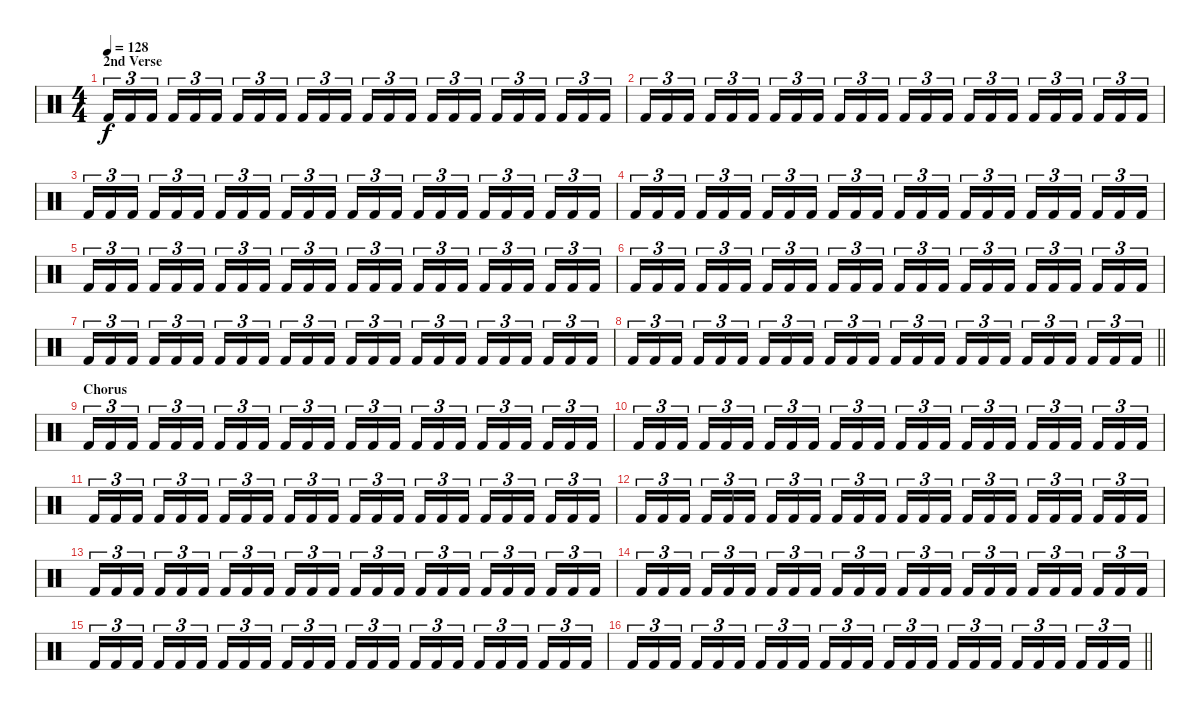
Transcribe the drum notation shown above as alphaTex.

\track "" {instrument percussion}
\staff {score}
\articulation defaults
\ts (4 4)
\section ("" "2nd Verse")
\tempo 128
\clef neutral
\ks c "Kick (hit) 2".16{tu (3 2) dy f} "Kick (hit) 2".16{tu (3 2)} "Kick (hit) 2".16{tu (3 2) beam splitsecondary} "Kick (hit) 2".16{tu (3 2)} "Kick (hit) 2".16{tu (3 2)} "Kick (hit) 2".16{tu (3 2)} "Kick (hit) 2".16{tu (3 2)} "Kick (hit) 2".16{tu (3 2)} "Kick (hit) 2".16{tu (3 2) beam splitsecondary} "Kick (hit) 2".16{tu (3 2)} "Kick (hit) 2".16{tu (3 2)} "Kick (hit) 2".16{tu (3 2)} "Kick (hit) 2".16{tu (3 2)} "Kick (hit) 2".16{tu (3 2)} "Kick (hit) 2".16{tu (3 2) beam splitsecondary} "Kick (hit) 2".16{tu (3 2)} "Kick (hit) 2".16{tu (3 2)} "Kick (hit) 2".16{tu (3 2)} "Kick (hit) 2".16{tu (3 2)} "Kick (hit) 2".16{tu (3 2)} "Kick (hit) 2".16{tu (3 2) beam splitsecondary} "Kick (hit) 2".16{tu (3 2)} "Kick (hit) 2".16{tu (3 2)} "Kick (hit) 2".16{tu (3 2)}
|
"Kick (hit) 2".16{tu (3 2)} "Kick (hit) 2".16{tu (3 2)} "Kick (hit) 2".16{tu (3 2) beam splitsecondary} "Kick (hit) 2".16{tu (3 2)} "Kick (hit) 2".16{tu (3 2)} "Kick (hit) 2".16{tu (3 2)} "Kick (hit) 2".16{tu (3 2)} "Kick (hit) 2".16{tu (3 2)} "Kick (hit) 2".16{tu (3 2) beam splitsecondary} "Kick (hit) 2".16{tu (3 2)} "Kick (hit) 2".16{tu (3 2)} "Kick (hit) 2".16{tu (3 2)} "Kick (hit) 2".16{tu (3 2)} "Kick (hit) 2".16{tu (3 2)} "Kick (hit) 2".16{tu (3 2) beam splitsecondary} "Kick (hit) 2".16{tu (3 2)} "Kick (hit) 2".16{tu (3 2)} "Kick (hit) 2".16{tu (3 2)} "Kick (hit) 2".16{tu (3 2)} "Kick (hit) 2".16{tu (3 2)} "Kick (hit) 2".16{tu (3 2) beam splitsecondary} "Kick (hit) 2".16{tu (3 2)} "Kick (hit) 2".16{tu (3 2)} "Kick (hit) 2".16{tu (3 2)} |
"Kick (hit) 2".16{tu (3 2)} "Kick (hit) 2".16{tu (3 2)} "Kick (hit) 2".16{tu (3 2) beam splitsecondary} "Kick (hit) 2".16{tu (3 2)} "Kick (hit) 2".16{tu (3 2)} "Kick (hit) 2".16{tu (3 2)} "Kick (hit) 2".16{tu (3 2)} "Kick (hit) 2".16{tu (3 2)} "Kick (hit) 2".16{tu (3 2) beam splitsecondary} "Kick (hit) 2".16{tu (3 2)} "Kick (hit) 2".16{tu (3 2)} "Kick (hit) 2".16{tu (3 2)} "Kick (hit) 2".16{tu (3 2)} "Kick (hit) 2".16{tu (3 2)} "Kick (hit) 2".16{tu (3 2) beam splitsecondary} "Kick (hit) 2".16{tu (3 2)} "Kick (hit) 2".16{tu (3 2)} "Kick (hit) 2".16{tu (3 2)} "Kick (hit) 2".16{tu (3 2)} "Kick (hit) 2".16{tu (3 2)} "Kick (hit) 2".16{tu (3 2) beam splitsecondary} "Kick (hit) 2".16{tu (3 2)} "Kick (hit) 2".16{tu (3 2)} "Kick (hit) 2".16{tu (3 2)} |
"Kick (hit) 2".16{tu (3 2)} "Kick (hit) 2".16{tu (3 2)} "Kick (hit) 2".16{tu (3 2) beam splitsecondary} "Kick (hit) 2".16{tu (3 2)} "Kick (hit) 2".16{tu (3 2)} "Kick (hit) 2".16{tu (3 2)} "Kick (hit) 2".16{tu (3 2)} "Kick (hit) 2".16{tu (3 2)} "Kick (hit) 2".16{tu (3 2) beam splitsecondary} "Kick (hit) 2".16{tu (3 2)} "Kick (hit) 2".16{tu (3 2)} "Kick (hit) 2".16{tu (3 2)} "Kick (hit) 2".16{tu (3 2)} "Kick (hit) 2".16{tu (3 2)} "Kick (hit) 2".16{tu (3 2) beam splitsecondary} "Kick (hit) 2".16{tu (3 2)} "Kick (hit) 2".16{tu (3 2)} "Kick (hit) 2".16{tu (3 2)} "Kick (hit) 2".16{tu (3 2)} "Kick (hit) 2".16{tu (3 2)} "Kick (hit) 2".16{tu (3 2) beam splitsecondary} "Kick (hit) 2".16{tu (3 2)} "Kick (hit) 2".16{tu (3 2)} "Kick (hit) 2".16{tu (3 2)} |
"Kick (hit) 2".16{tu (3 2)} "Kick (hit) 2".16{tu (3 2)} "Kick (hit) 2".16{tu (3 2) beam splitsecondary} "Kick (hit) 2".16{tu (3 2)} "Kick (hit) 2".16{tu (3 2)} "Kick (hit) 2".16{tu (3 2)} "Kick (hit) 2".16{tu (3 2)} "Kick (hit) 2".16{tu (3 2)} "Kick (hit) 2".16{tu (3 2) beam splitsecondary} "Kick (hit) 2".16{tu (3 2)} "Kick (hit) 2".16{tu (3 2)} "Kick (hit) 2".16{tu (3 2)} "Kick (hit) 2".16{tu (3 2)} "Kick (hit) 2".16{tu (3 2)} "Kick (hit) 2".16{tu (3 2) beam splitsecondary} "Kick (hit) 2".16{tu (3 2)} "Kick (hit) 2".16{tu (3 2)} "Kick (hit) 2".16{tu (3 2)} "Kick (hit) 2".16{tu (3 2)} "Kick (hit) 2".16{tu (3 2)} "Kick (hit) 2".16{tu (3 2) beam splitsecondary} "Kick (hit) 2".16{tu (3 2)} "Kick (hit) 2".16{tu (3 2)} "Kick (hit) 2".16{tu (3 2)} |
"Kick (hit) 2".16{tu (3 2)} "Kick (hit) 2".16{tu (3 2)} "Kick (hit) 2".16{tu (3 2) beam splitsecondary} "Kick (hit) 2".16{tu (3 2)} "Kick (hit) 2".16{tu (3 2)} "Kick (hit) 2".16{tu (3 2)} "Kick (hit) 2".16{tu (3 2)} "Kick (hit) 2".16{tu (3 2)} "Kick (hit) 2".16{tu (3 2) beam splitsecondary} "Kick (hit) 2".16{tu (3 2)} "Kick (hit) 2".16{tu (3 2)} "Kick (hit) 2".16{tu (3 2)} "Kick (hit) 2".16{tu (3 2)} "Kick (hit) 2".16{tu (3 2)} "Kick (hit) 2".16{tu (3 2) beam splitsecondary} "Kick (hit) 2".16{tu (3 2)} "Kick (hit) 2".16{tu (3 2)} "Kick (hit) 2".16{tu (3 2)} "Kick (hit) 2".16{tu (3 2)} "Kick (hit) 2".16{tu (3 2)} "Kick (hit) 2".16{tu (3 2) beam splitsecondary} "Kick (hit) 2".16{tu (3 2)} "Kick (hit) 2".16{tu (3 2)} "Kick (hit) 2".16{tu (3 2)} |
"Kick (hit) 2".16{tu (3 2)} "Kick (hit) 2".16{tu (3 2)} "Kick (hit) 2".16{tu (3 2) beam splitsecondary} "Kick (hit) 2".16{tu (3 2)} "Kick (hit) 2".16{tu (3 2)} "Kick (hit) 2".16{tu (3 2)} "Kick (hit) 2".16{tu (3 2)} "Kick (hit) 2".16{tu (3 2)} "Kick (hit) 2".16{tu (3 2) beam splitsecondary} "Kick (hit) 2".16{tu (3 2)} "Kick (hit) 2".16{tu (3 2)} "Kick (hit) 2".16{tu (3 2)} "Kick (hit) 2".16{tu (3 2)} "Kick (hit) 2".16{tu (3 2)} "Kick (hit) 2".16{tu (3 2) beam splitsecondary} "Kick (hit) 2".16{tu (3 2)} "Kick (hit) 2".16{tu (3 2)} "Kick (hit) 2".16{tu (3 2)} "Kick (hit) 2".16{tu (3 2)} "Kick (hit) 2".16{tu (3 2)} "Kick (hit) 2".16{tu (3 2) beam splitsecondary} "Kick (hit) 2".16{tu (3 2)} "Kick (hit) 2".16{tu (3 2)} "Kick (hit) 2".16{tu (3 2)} |
\barLineRight lightlight "Kick (hit) 2".16{tu (3 2)} "Kick (hit) 2".16{tu (3 2)} "Kick (hit) 2".16{tu (3 2) beam splitsecondary} "Kick (hit) 2".16{tu (3 2)} "Kick (hit) 2".16{tu (3 2)} "Kick (hit) 2".16{tu (3 2)} "Kick (hit) 2".16{tu (3 2)} "Kick (hit) 2".16{tu (3 2)} "Kick (hit) 2".16{tu (3 2) beam splitsecondary} "Kick (hit) 2".16{tu (3 2)} "Kick (hit) 2".16{tu (3 2)} "Kick (hit) 2".16{tu (3 2)} "Kick (hit) 2".16{tu (3 2)} "Kick (hit) 2".16{tu (3 2)} "Kick (hit) 2".16{tu (3 2) beam splitsecondary} "Kick (hit) 2".16{tu (3 2)} "Kick (hit) 2".16{tu (3 2)} "Kick (hit) 2".16{tu (3 2)} "Kick (hit) 2".16{tu (3 2)} "Kick (hit) 2".16{tu (3 2)} "Kick (hit) 2".16{tu (3 2) beam splitsecondary} "Kick (hit) 2".16{tu (3 2)} "Kick (hit) 2".16{tu (3 2)} "Kick (hit) 2".16{tu (3 2)}
|
\section ("" "Chorus")
"Kick (hit) 2".16{tu (3 2)} "Kick (hit) 2".16{tu (3 2)} "Kick (hit) 2".16{tu (3 2) beam splitsecondary} "Kick (hit) 2".16{tu (3 2)} "Kick (hit) 2".16{tu (3 2)} "Kick (hit) 2".16{tu (3 2)} "Kick (hit) 2".16{tu (3 2)} "Kick (hit) 2".16{tu (3 2)} "Kick (hit) 2".16{tu (3 2) beam splitsecondary} "Kick (hit) 2".16{tu (3 2)} "Kick (hit) 2".16{tu (3 2)} "Kick (hit) 2".16{tu (3 2)} "Kick (hit) 2".16{tu (3 2)} "Kick (hit) 2".16{tu (3 2)} "Kick (hit) 2".16{tu (3 2) beam splitsecondary} "Kick (hit) 2".16{tu (3 2)} "Kick (hit) 2".16{tu (3 2)} "Kick (hit) 2".16{tu (3 2)} "Kick (hit) 2".16{tu (3 2)} "Kick (hit) 2".16{tu (3 2)} "Kick (hit) 2".16{tu (3 2) beam splitsecondary} "Kick (hit) 2".16{tu (3 2)} "Kick (hit) 2".16{tu (3 2)} "Kick (hit) 2".16{tu (3 2)} |
"Kick (hit) 2".16{tu (3 2)} "Kick (hit) 2".16{tu (3 2)} "Kick (hit) 2".16{tu (3 2) beam splitsecondary} "Kick (hit) 2".16{tu (3 2)} "Kick (hit) 2".16{tu (3 2)} "Kick (hit) 2".16{tu (3 2)} "Kick (hit) 2".16{tu (3 2)} "Kick (hit) 2".16{tu (3 2)} "Kick (hit) 2".16{tu (3 2) beam splitsecondary} "Kick (hit) 2".16{tu (3 2)} "Kick (hit) 2".16{tu (3 2)} "Kick (hit) 2".16{tu (3 2)} "Kick (hit) 2".16{tu (3 2)} "Kick (hit) 2".16{tu (3 2)} "Kick (hit) 2".16{tu (3 2) beam splitsecondary} "Kick (hit) 2".16{tu (3 2)} "Kick (hit) 2".16{tu (3 2)} "Kick (hit) 2".16{tu (3 2)} "Kick (hit) 2".16{tu (3 2)} "Kick (hit) 2".16{tu (3 2)} "Kick (hit) 2".16{tu (3 2) beam splitsecondary} "Kick (hit) 2".16{tu (3 2)} "Kick (hit) 2".16{tu (3 2)} "Kick (hit) 2".16{tu (3 2)} |
"Kick (hit) 2".16{tu (3 2)} "Kick (hit) 2".16{tu (3 2)} "Kick (hit) 2".16{tu (3 2) beam splitsecondary} "Kick (hit) 2".16{tu (3 2)} "Kick (hit) 2".16{tu (3 2)} "Kick (hit) 2".16{tu (3 2)} "Kick (hit) 2".16{tu (3 2)} "Kick (hit) 2".16{tu (3 2)} "Kick (hit) 2".16{tu (3 2) beam splitsecondary} "Kick (hit) 2".16{tu (3 2)} "Kick (hit) 2".16{tu (3 2)} "Kick (hit) 2".16{tu (3 2)} "Kick (hit) 2".16{tu (3 2)} "Kick (hit) 2".16{tu (3 2)} "Kick (hit) 2".16{tu (3 2) beam splitsecondary} "Kick (hit) 2".16{tu (3 2)} "Kick (hit) 2".16{tu (3 2)} "Kick (hit) 2".16{tu (3 2)} "Kick (hit) 2".16{tu (3 2)} "Kick (hit) 2".16{tu (3 2)} "Kick (hit) 2".16{tu (3 2) beam splitsecondary} "Kick (hit) 2".16{tu (3 2)} "Kick (hit) 2".16{tu (3 2)} "Kick (hit) 2".16{tu (3 2)} |
"Kick (hit) 2".16{tu (3 2)} "Kick (hit) 2".16{tu (3 2)} "Kick (hit) 2".16{tu (3 2) beam splitsecondary} "Kick (hit) 2".16{tu (3 2)} "Kick (hit) 2".16{tu (3 2)} "Kick (hit) 2".16{tu (3 2)} "Kick (hit) 2".16{tu (3 2)} "Kick (hit) 2".16{tu (3 2)} "Kick (hit) 2".16{tu (3 2) beam splitsecondary} "Kick (hit) 2".16{tu (3 2)} "Kick (hit) 2".16{tu (3 2)} "Kick (hit) 2".16{tu (3 2)} "Kick (hit) 2".16{tu (3 2)} "Kick (hit) 2".16{tu (3 2)} "Kick (hit) 2".16{tu (3 2) beam splitsecondary} "Kick (hit) 2".16{tu (3 2)} "Kick (hit) 2".16{tu (3 2)} "Kick (hit) 2".16{tu (3 2)} "Kick (hit) 2".16{tu (3 2)} "Kick (hit) 2".16{tu (3 2)} "Kick (hit) 2".16{tu (3 2) beam splitsecondary} "Kick (hit) 2".16{tu (3 2)} "Kick (hit) 2".16{tu (3 2)} "Kick (hit) 2".16{tu (3 2)} |
"Kick (hit) 2".16{tu (3 2)} "Kick (hit) 2".16{tu (3 2)} "Kick (hit) 2".16{tu (3 2) beam splitsecondary} "Kick (hit) 2".16{tu (3 2)} "Kick (hit) 2".16{tu (3 2)} "Kick (hit) 2".16{tu (3 2)} "Kick (hit) 2".16{tu (3 2)} "Kick (hit) 2".16{tu (3 2)} "Kick (hit) 2".16{tu (3 2) beam splitsecondary} "Kick (hit) 2".16{tu (3 2)} "Kick (hit) 2".16{tu (3 2)} "Kick (hit) 2".16{tu (3 2)} "Kick (hit) 2".16{tu (3 2)} "Kick (hit) 2".16{tu (3 2)} "Kick (hit) 2".16{tu (3 2) beam splitsecondary} "Kick (hit) 2".16{tu (3 2)} "Kick (hit) 2".16{tu (3 2)} "Kick (hit) 2".16{tu (3 2)} "Kick (hit) 2".16{tu (3 2)} "Kick (hit) 2".16{tu (3 2)} "Kick (hit) 2".16{tu (3 2) beam splitsecondary} "Kick (hit) 2".16{tu (3 2)} "Kick (hit) 2".16{tu (3 2)} "Kick (hit) 2".16{tu (3 2)} |
"Kick (hit) 2".16{tu (3 2)} "Kick (hit) 2".16{tu (3 2)} "Kick (hit) 2".16{tu (3 2) beam splitsecondary} "Kick (hit) 2".16{tu (3 2)} "Kick (hit) 2".16{tu (3 2)} "Kick (hit) 2".16{tu (3 2)} "Kick (hit) 2".16{tu (3 2)} "Kick (hit) 2".16{tu (3 2)} "Kick (hit) 2".16{tu (3 2) beam splitsecondary} "Kick (hit) 2".16{tu (3 2)} "Kick (hit) 2".16{tu (3 2)} "Kick (hit) 2".16{tu (3 2)} "Kick (hit) 2".16{tu (3 2)} "Kick (hit) 2".16{tu (3 2)} "Kick (hit) 2".16{tu (3 2) beam splitsecondary} "Kick (hit) 2".16{tu (3 2)} "Kick (hit) 2".16{tu (3 2)} "Kick (hit) 2".16{tu (3 2)} "Kick (hit) 2".16{tu (3 2)} "Kick (hit) 2".16{tu (3 2)} "Kick (hit) 2".16{tu (3 2) beam splitsecondary} "Kick (hit) 2".16{tu (3 2)} "Kick (hit) 2".16{tu (3 2)} "Kick (hit) 2".16{tu (3 2)} |
"Kick (hit) 2".16{tu (3 2)} "Kick (hit) 2".16{tu (3 2)} "Kick (hit) 2".16{tu (3 2) beam splitsecondary} "Kick (hit) 2".16{tu (3 2)} "Kick (hit) 2".16{tu (3 2)} "Kick (hit) 2".16{tu (3 2)} "Kick (hit) 2".16{tu (3 2)} "Kick (hit) 2".16{tu (3 2)} "Kick (hit) 2".16{tu (3 2) beam splitsecondary} "Kick (hit) 2".16{tu (3 2)} "Kick (hit) 2".16{tu (3 2)} "Kick (hit) 2".16{tu (3 2)} "Kick (hit) 2".16{tu (3 2)} "Kick (hit) 2".16{tu (3 2)} "Kick (hit) 2".16{tu (3 2) beam splitsecondary} "Kick (hit) 2".16{tu (3 2)} "Kick (hit) 2".16{tu (3 2)} "Kick (hit) 2".16{tu (3 2)} "Kick (hit) 2".16{tu (3 2)} "Kick (hit) 2".16{tu (3 2)} "Kick (hit) 2".16{tu (3 2) beam splitsecondary} "Kick (hit) 2".16{tu (3 2)} "Kick (hit) 2".16{tu (3 2)} "Kick (hit) 2".16{tu (3 2)} |
\barLineRight lightlight "Kick (hit) 2".16{tu (3 2)} "Kick (hit) 2".16{tu (3 2)} "Kick (hit) 2".16{tu (3 2) beam splitsecondary} "Kick (hit) 2".16{tu (3 2)} "Kick (hit) 2".16{tu (3 2)} "Kick (hit) 2".16{tu (3 2)} "Kick (hit) 2".16{tu (3 2)} "Kick (hit) 2".16{tu (3 2)} "Kick (hit) 2".16{tu (3 2) beam splitsecondary} "Kick (hit) 2".16{tu (3 2)} "Kick (hit) 2".16{tu (3 2)} "Kick (hit) 2".16{tu (3 2)} "Kick (hit) 2".16{tu (3 2)} "Kick (hit) 2".16{tu (3 2)} "Kick (hit) 2".16{tu (3 2) beam splitsecondary} "Kick (hit) 2".16{tu (3 2)} "Kick (hit) 2".16{tu (3 2)} "Kick (hit) 2".16{tu (3 2)} "Kick (hit) 2".16{tu (3 2)} "Kick (hit) 2".16{tu (3 2)} "Kick (hit) 2".16{tu (3 2) beam splitsecondary} "Kick (hit) 2".16{tu (3 2)} "Kick (hit) 2".16{tu (3 2)} "Kick (hit) 2".16{tu (3 2)}
